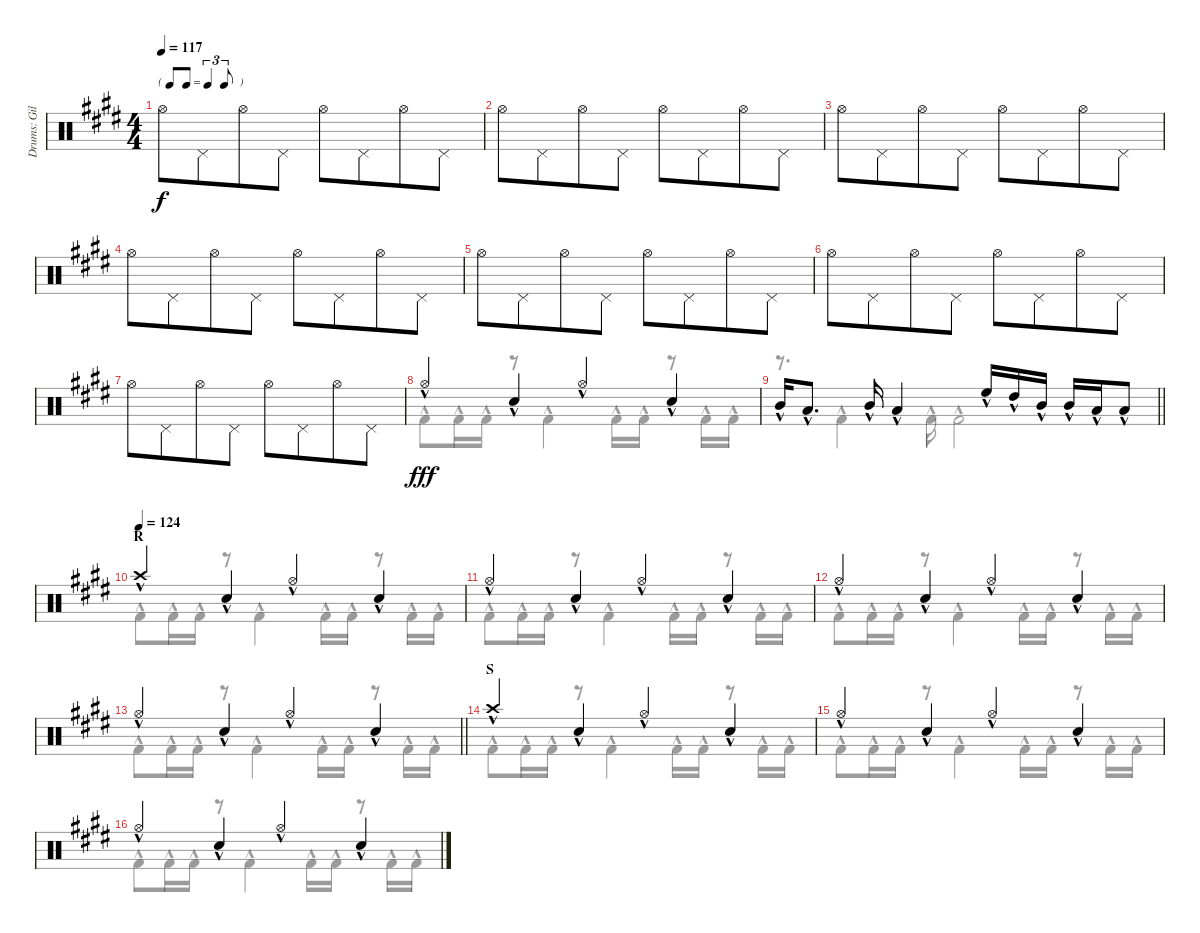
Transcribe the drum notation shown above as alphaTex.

\track ("Drums: Gil" "Drums: Gil") {instrument percussion}
\staff {score}
\articulation defaults
\voice
\ts (4 4)
\tf triplet8th
\tempo 117
\clef neutral
\ks e "Hi-Hat (open)".8{dy f} "Pedal Hi-Hat (hit)".8{beam merge} "Hi-Hat (open)".8 "Pedal Hi-Hat (hit)".8 "Hi-Hat (open)".8 "Pedal Hi-Hat (hit)".8{beam merge} "Hi-Hat (open)".8 "Pedal Hi-Hat (hit)".8
|
"Hi-Hat (open)".8 "Pedal Hi-Hat (hit)".8{beam merge} "Hi-Hat (open)".8 "Pedal Hi-Hat (hit)".8 "Hi-Hat (open)".8 "Pedal Hi-Hat (hit)".8{beam merge} "Hi-Hat (open)".8 "Pedal Hi-Hat (hit)".8 |
"Hi-Hat (open)".8 "Pedal Hi-Hat (hit)".8{beam merge} "Hi-Hat (open)".8 "Pedal Hi-Hat (hit)".8 "Hi-Hat (open)".8 "Pedal Hi-Hat (hit)".8{beam merge} "Hi-Hat (open)".8 "Pedal Hi-Hat (hit)".8 |
"Hi-Hat (open)".8 "Pedal Hi-Hat (hit)".8{beam merge} "Hi-Hat (open)".8 "Pedal Hi-Hat (hit)".8 "Hi-Hat (open)".8 "Pedal Hi-Hat (hit)".8{beam merge} "Hi-Hat (open)".8 "Pedal Hi-Hat (hit)".8 |
"Hi-Hat (open)".8 "Pedal Hi-Hat (hit)".8{beam merge} "Hi-Hat (open)".8 "Pedal Hi-Hat (hit)".8 "Hi-Hat (open)".8 "Pedal Hi-Hat (hit)".8{beam merge} "Hi-Hat (open)".8 "Pedal Hi-Hat (hit)".8 |
"Hi-Hat (open)".8 "Pedal Hi-Hat (hit)".8{beam merge} "Hi-Hat (open)".8 "Pedal Hi-Hat (hit)".8 "Hi-Hat (open)".8 "Pedal Hi-Hat (hit)".8{beam merge} "Hi-Hat (open)".8 "Pedal Hi-Hat (hit)".8 |
"Hi-Hat (open)".8 "Pedal Hi-Hat (hit)".8{beam merge} "Hi-Hat (open)".8 "Pedal Hi-Hat (hit)".8 "Hi-Hat (open)".8 "Pedal Hi-Hat (hit)".8{beam merge} "Hi-Hat (open)".8 "Pedal Hi-Hat (hit)".8 |
"Hi-Hat (open)"{hac}.4{dy fff} "Snare (hit) 2"{hac}.4 "Hi-Hat (open)"{hac}.4 "Snare (hit) 2"{hac}.4 |
\barLineRight lightlight "Mid Tom (hit)"{hac}.16 "Low Tom (hit)"{hac}.8{d} "Mid Tom (hit)"{hac}.16 "Low Tom (hit)"{hac}.4 "High Floor Tom (hit)"{hac}.16 "High Tom (hit)"{hac}.16 "Mid Tom (hit)"{hac}.16 "Mid Tom (hit)"{hac}.16 "Low Tom (hit)"{hac}.16 "Low Tom (hit)"{hac}.8
|
\section ("" "R")
\tempo (124)
"Crash high (hit)"{hac}.4 "Snare (hit) 2"{hac}.4 "Hi-Hat (open)"{hac}.4 "Snare (hit) 2"{hac}.4 |
"Hi-Hat (open)"{hac}.4 "Snare (hit) 2"{hac}.4 "Hi-Hat (open)"{hac}.4 "Snare (hit) 2"{hac}.4 |
"Hi-Hat (open)"{hac}.4 "Snare (hit) 2"{hac}.4 "Hi-Hat (open)"{hac}.4 "Snare (hit) 2"{hac}.4 |
\barLineRight lightlight "Hi-Hat (open)"{hac}.4 "Snare (hit) 2"{hac}.4 "Hi-Hat (open)"{hac}.4 "Snare (hit) 2"{hac}.4
|
\section ("" "S")
"Crash high (hit)"{hac}.4 "Snare (hit) 2"{hac}.4 "Hi-Hat (open)"{hac}.4 "Snare (hit) 2"{hac}.4 |
"Hi-Hat (open)"{hac}.4 "Snare (hit) 2"{hac}.4 "Hi-Hat (open)"{hac}.4 "Snare (hit) 2"{hac}.4 |
"Hi-Hat (open)"{hac}.4 "Snare (hit) 2"{hac}.4 "Hi-Hat (open)"{hac}.4 "Snare (hit) 2"{hac}.4
\voice
\clef neutral
\ottava regular
\simile none
\ks e
|
|
|
|
|
|
|
"Kick (hit) 2"{hac}.8 "Kick (hit) 2"{hac}.16 "Kick (hit) 2"{hac}.16 r.8 "Kick (hit) 2"{hac}.4 "Kick (hit) 2"{hac}.16 "Kick (hit) 2"{hac}.16 r.8 "Kick (hit) 2"{hac}.16 "Kick (hit) 2"{hac}.16 |
\barLineRight lightlight
r.8{d} "Kick (hit) 2"{hac}.4 "Kick (hit) 2"{hac}.16 "Kick (hit) 2"{hac}.2 |
"Kick (hit) 2"{hac}.8 "Kick (hit) 2"{hac}.16 "Kick (hit) 2"{hac}.16 r.8 "Kick (hit) 2"{hac}.4 "Kick (hit) 2"{hac}.16 "Kick (hit) 2"{hac}.16 r.8 "Kick (hit) 2"{hac}.16 "Kick (hit) 2"{hac}.16 |
"Kick (hit) 2"{hac}.8 "Kick (hit) 2"{hac}.16 "Kick (hit) 2"{hac}.16 r.8 "Kick (hit) 2"{hac}.4 "Kick (hit) 2"{hac}.16 "Kick (hit) 2"{hac}.16 r.8 "Kick (hit) 2"{hac}.16 "Kick (hit) 2"{hac}.16 |
"Kick (hit) 2"{hac}.8 "Kick (hit) 2"{hac}.16 "Kick (hit) 2"{hac}.16 r.8 "Kick (hit) 2"{hac}.4 "Kick (hit) 2"{hac}.16 "Kick (hit) 2"{hac}.16 r.8 "Kick (hit) 2"{hac}.16 "Kick (hit) 2"{hac}.16 |
\barLineRight lightlight "Kick (hit) 2"{hac}.8 "Kick (hit) 2"{hac}.16 "Kick (hit) 2"{hac}.16
r.8 "Kick (hit) 2"{hac}.4 "Kick (hit) 2"{hac}.16 "Kick (hit) 2"{hac}.16 r.8 "Kick (hit) 2"{hac}.16 "Kick (hit) 2"{hac}.16 |
"Kick (hit) 2"{hac}.8 "Kick (hit) 2"{hac}.16 "Kick (hit) 2"{hac}.16 r.8 "Kick (hit) 2"{hac}.4 "Kick (hit) 2"{hac}.16 "Kick (hit) 2"{hac}.16 r.8 "Kick (hit) 2"{hac}.16 "Kick (hit) 2"{hac}.16 |
"Kick (hit) 2"{hac}.8 "Kick (hit) 2"{hac}.16 "Kick (hit) 2"{hac}.16 r.8 "Kick (hit) 2"{hac}.4 "Kick (hit) 2"{hac}.16 "Kick (hit) 2"{hac}.16 r.8 "Kick (hit) 2"{hac}.16 "Kick (hit) 2"{hac}.16 |
"Kick (hit) 2"{hac}.8 "Kick (hit) 2"{hac}.16 "Kick (hit) 2"{hac}.16 r.8 "Kick (hit) 2"{hac}.4 "Kick (hit) 2"{hac}.16 "Kick (hit) 2"{hac}.16 r.8 "Kick (hit) 2"{hac}.16 "Kick (hit) 2"{hac}.16
